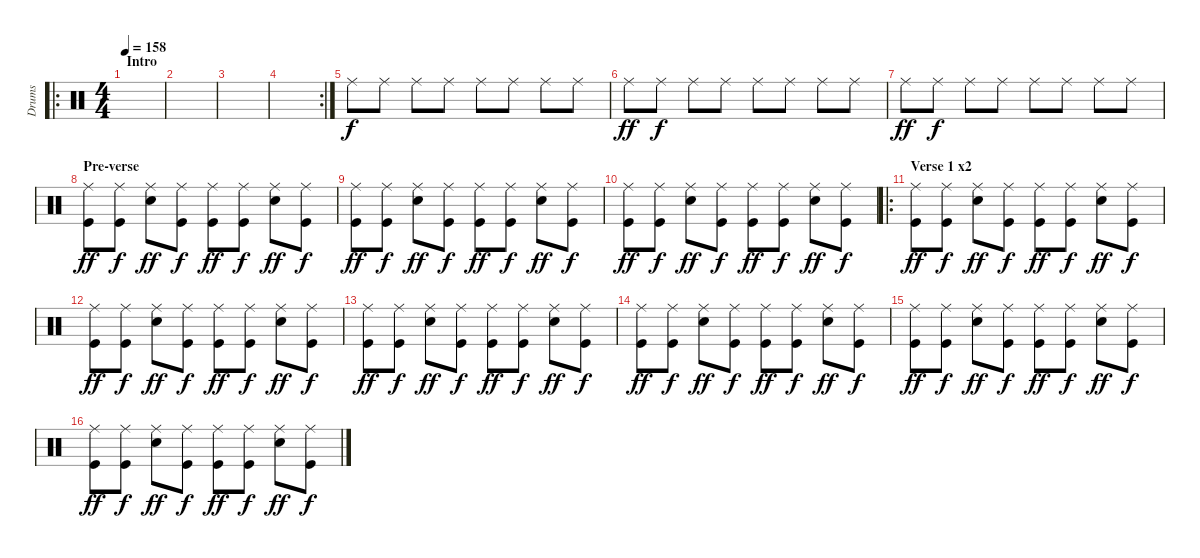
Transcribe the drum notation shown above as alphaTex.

\track ("Drums" "Drums") {instrument percussion}
\staff {score}
\articulation defaults
\ro
\ts (4 4)
\section ("" "Intro")
\tempo 158
\clef neutral
\ks c
|
|
|
\rc 2
|
"Ride (middle)".8 "Ride (middle)".8{dy f} "Ride (middle)".8 "Ride (middle)".8 "Ride (middle)".8 "Ride (middle)".8 "Ride (middle)".8 "Ride (middle)".8 |
"Ride (middle)".8{dy ff} "Ride (middle)".8{dy f} "Ride (middle)".8 "Ride (middle)".8 "Ride (middle)".8 "Ride (middle)".8 "Ride (middle)".8 "Ride (middle)".8 |
"Ride (middle)".8{dy ff} "Ride (middle)".8{dy f} "Ride (middle)".8 "Ride (middle)".8 "Ride (middle)".8 "Ride (middle)".8 "Ride (middle)".8 "Ride (middle)".8 |
\section ("" "Pre-verse")
("Ride (middle)" "Kick (hit)").8{dy ff} ("Ride (middle)" "Kick (hit)").8{dy f} ("Ride (middle)" "Electric Snare (hit)").8{dy ff} ("Ride (middle)" "Kick (hit)").8{dy f} ("Ride (middle)" "Kick (hit)").8{dy ff} ("Ride (middle)" "Kick (hit)").8{dy f} ("Ride (middle)" "Electric Snare (hit)").8{dy ff} ("Ride (middle)" "Kick (hit)").8{dy f} |
("Ride (middle)" "Kick (hit)").8{dy ff} ("Ride (middle)" "Kick (hit)").8{dy f} ("Ride (middle)" "Electric Snare (hit)").8{dy ff} ("Ride (middle)" "Kick (hit)").8{dy f} ("Ride (middle)" "Kick (hit)").8{dy ff} ("Ride (middle)" "Kick (hit)").8{dy f} ("Ride (middle)" "Electric Snare (hit)").8{dy ff} ("Ride (middle)" "Kick (hit)").8{dy f} |
("Ride (middle)" "Kick (hit)").8{dy ff} ("Ride (middle)" "Kick (hit)").8{dy f} ("Ride (middle)" "Electric Snare (hit)").8{dy ff} ("Ride (middle)" "Kick (hit)").8{dy f} ("Ride (middle)" "Kick (hit)").8{dy ff} ("Ride (middle)" "Kick (hit)").8{dy f} ("Ride (middle)" "Electric Snare (hit)").8{dy ff} ("Ride (middle)" "Kick (hit)").8{dy f} |
\ro
\section ("" "Verse 1 x2")
("Ride (middle)" "Kick (hit)").8{dy ff} ("Ride (middle)" "Kick (hit)").8{dy f} ("Ride (middle)" "Electric Snare (hit)").8{dy ff} ("Ride (middle)" "Kick (hit)").8{dy f} ("Ride (middle)" "Kick (hit)").8{dy ff} ("Ride (middle)" "Kick (hit)").8{dy f} ("Ride (middle)" "Electric Snare (hit)").8{dy ff} ("Ride (middle)" "Kick (hit)").8{dy f} |
("Ride (middle)" "Kick (hit)").8{dy ff} ("Ride (middle)" "Kick (hit)").8{dy f} ("Ride (middle)" "Electric Snare (hit)").8{dy ff} ("Ride (middle)" "Kick (hit)").8{dy f} ("Ride (middle)" "Kick (hit)").8{dy ff} ("Ride (middle)" "Kick (hit)").8{dy f} ("Ride (middle)" "Electric Snare (hit)").8{dy ff} ("Ride (middle)" "Kick (hit)").8{dy f} |
("Ride (middle)" "Kick (hit)").8{dy ff} ("Ride (middle)" "Kick (hit)").8{dy f} ("Ride (middle)" "Electric Snare (hit)").8{dy ff} ("Ride (middle)" "Kick (hit)").8{dy f} ("Ride (middle)" "Kick (hit)").8{dy ff} ("Ride (middle)" "Kick (hit)").8{dy f} ("Ride (middle)" "Electric Snare (hit)").8{dy ff} ("Ride (middle)" "Kick (hit)").8{dy f} |
("Ride (middle)" "Kick (hit)").8{dy ff} ("Ride (middle)" "Kick (hit)").8{dy f} ("Ride (middle)" "Electric Snare (hit)").8{dy ff} ("Ride (middle)" "Kick (hit)").8{dy f} ("Ride (middle)" "Kick (hit)").8{dy ff} ("Ride (middle)" "Kick (hit)").8{dy f} ("Ride (middle)" "Electric Snare (hit)").8{dy ff} ("Ride (middle)" "Kick (hit)").8{dy f} |
("Ride (middle)" "Kick (hit)").8{dy ff} ("Ride (middle)" "Kick (hit)").8{dy f} ("Ride (middle)" "Electric Snare (hit)").8{dy ff} ("Ride (middle)" "Kick (hit)").8{dy f} ("Ride (middle)" "Kick (hit)").8{dy ff} ("Ride (middle)" "Kick (hit)").8{dy f} ("Ride (middle)" "Electric Snare (hit)").8{dy ff} ("Ride (middle)" "Kick (hit)").8{dy f} |
("Ride (middle)" "Kick (hit)").8{dy ff} ("Ride (middle)" "Kick (hit)").8{dy f} ("Ride (middle)" "Electric Snare (hit)").8{dy ff} ("Ride (middle)" "Kick (hit)").8{dy f} ("Ride (middle)" "Kick (hit)").8{dy ff} ("Ride (middle)" "Kick (hit)").8{dy f} ("Ride (middle)" "Electric Snare (hit)").8{dy ff} ("Ride (middle)" "Kick (hit)").8{dy f}
